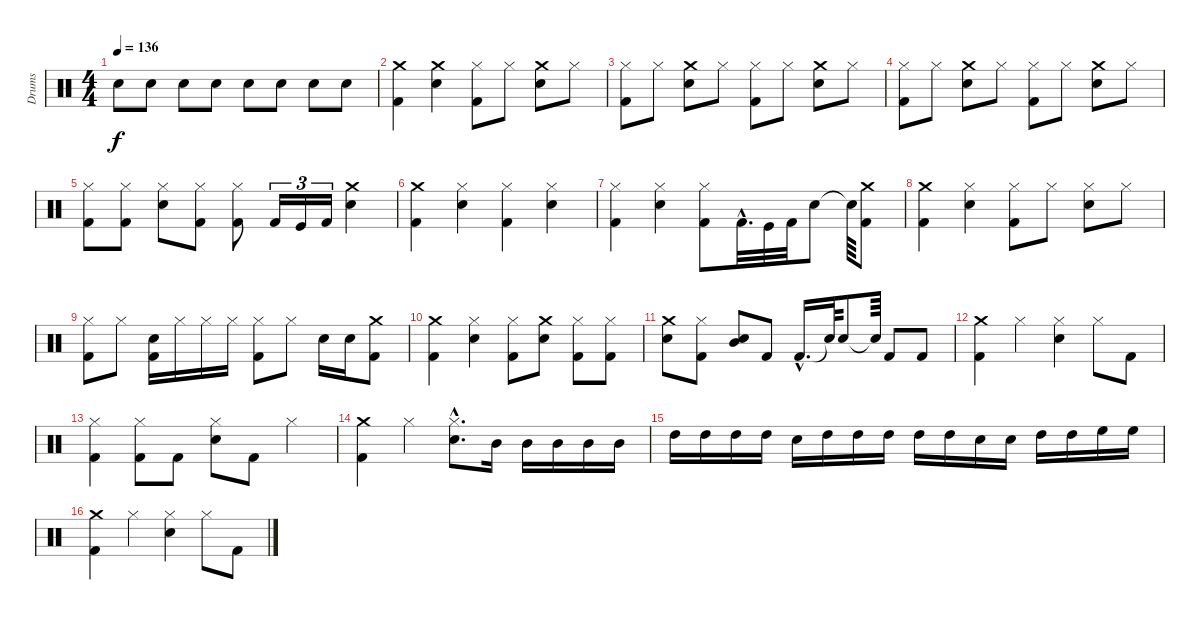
\track ("Drums" "Drums") {instrument percussion}
\staff {score}
\articulation defaults
\ts (4 4)
\tempo 136
\clef neutral
\ks c "Snare (hit) 2".8{dy f} "Snare (hit) 2".8 "Snare (hit) 2".8 "Snare (hit) 2".8 "Snare (hit) 2".8 "Snare (hit) 2".8 "Snare (hit) 2".8 "Snare (hit) 2".8
|
("Crash medium (hit)" "Kick (hit) 2").4 ("Crash medium (hit)" "Snare (hit) 2").4 ("Kick (hit) 2" "Hi-Hat (closed)").8 "Hi-Hat (closed)".8 ("Crash medium (hit)" "Snare (hit) 2").8 "Hi-Hat (closed)".8 |
("Hi-Hat (closed)" "Kick (hit) 2").8 "Hi-Hat (closed)".8 ("Crash medium (hit)" "Snare (hit) 2").8 "Hi-Hat (closed)".8 ("Hi-Hat (closed)" "Kick (hit) 2").8 "Hi-Hat (closed)".8 ("Crash medium (hit)" "Snare (hit) 2").8 "Hi-Hat (closed)".8 |
("Hi-Hat (closed)" "Kick (hit) 2").8 "Hi-Hat (closed)".8 ("Crash medium (hit)" "Snare (hit) 2").8 "Hi-Hat (closed)".8 ("Hi-Hat (closed)" "Kick (hit) 2").8 "Hi-Hat (closed)".8 ("Crash medium (hit)" "Snare (hit) 2").8 "Hi-Hat (closed)".8 |
("Hi-Hat (closed)" "Kick (hit) 2").8 ("Hi-Hat (closed)" "Kick (hit) 2").8 ("Snare (hit) 2" "Hi-Hat (closed)").8 ("Hi-Hat (closed)" "Kick (hit) 2").8 ("Hi-Hat (closed)" "Kick (hit) 2").8 "Kick (hit) 2".16{tu (3 2)} "Kick (hit)".16{tu (3 2)} "Kick (hit) 2".16{tu (3 2)} ("Crash medium (hit)" "Snare (hit) 2").4 |
("Crash medium (hit)" "Kick (hit) 2").4 ("Snare (hit) 2" "Hi-Hat (closed)").4 ("Hi-Hat (closed)" "Kick (hit) 2").4 ("Snare (hit) 2" "Hi-Hat (closed)").4 |
("Hi-Hat (closed)" "Kick (hit) 2").4 ("Hi-Hat (closed)" "Snare (hit) 2").4 ("Kick (hit) 2" "Hi-Hat (closed)").8 "Kick (hit) 2"{hac}.32{d} "Kick (hit)".32 "Kick (hit) 2".32 "Snare (hit) 2".8 "Snare (hit)"{t}.64 ("Crash medium (hit)" "Kick (hit) 2").8 |
("Kick (hit) 2" "Crash medium (hit)").4 ("Hi-Hat (closed)" "Snare (hit) 2").4 ("Hi-Hat (closed)" "Kick (hit) 2").8 "Hi-Hat (closed)".8 ("Snare (hit) 2" "Hi-Hat (closed)").8 "Hi-Hat (closed)".8 |
("Kick (hit) 2" "Hi-Hat (closed)").8 "Hi-Hat (closed)".8 ("Kick (hit) 2" "Snare (hit) 2").16 "Hi-Hat (closed)".16 "Hi-Hat (closed)".16 "Hi-Hat (closed)".16 ("Kick (hit) 2" "Hi-Hat (closed)").8 "Hi-Hat (closed)".8 "Snare (hit) 2".16 "Snare (hit) 2".16 ("Kick (hit) 2" "Crash medium (hit)").8 |
("Kick (hit) 2" "Crash medium (hit)").4 ("Snare (hit) 2" "Hi-Hat (closed)").4 ("Kick (hit) 2" "Hi-Hat (closed)").8 ("Crash medium (hit)" "Snare (hit) 2").8 ("Kick (hit) 2" "Hi-Hat (closed)").8 ("Kick (hit) 2" "Hi-Hat (closed)").8 |
("Snare (hit) 2" "Crash medium (hit)").8 ("Kick (hit) 2" "Hi-Hat (closed)").8 ("Mid Tom (hit)" "Snare (hit) 2").8 "Kick (hit) 2".8 "Kick (hit) 2"{hac}.16{d} "Snare (hit)"{t}.64 "Snare (hit) 2".8 "Snare (hit)"{t}.64 "Kick (hit) 2".8 "Kick (hit) 2".8 |
("Kick (hit) 2" "Crash medium (hit)").4 "Hi-Hat (closed)".4 ("Snare (hit) 2" "Hi-Hat (closed)").4 "Hi-Hat (closed)".8 "Kick (hit) 2".8 |
("Hi-Hat (closed)" "Kick (hit) 2").4 ("Hi-Hat (closed)" "Kick (hit) 2").8 "Kick (hit) 2".8 ("Snare (hit) 2" "Hi-Hat (closed)").8 "Kick (hit) 2".8 "Hi-Hat (closed)".4 |
("Crash medium (hit)" "Kick (hit) 2").4 "Hi-Hat (closed)".4 ("Snare (hit) 2"{hac} "Hi-Hat (closed)"{hac}).8{d} "Mid Tom (hit)".16 "Mid Tom (hit)".16 "Mid Tom (hit)".16 "Mid Tom (hit)".16 "Mid Tom (hit)".16 |
"High Tom (hit)".16 "High Tom (hit)".16 "High Tom (hit)".16 "High Tom (hit)".16 "Snare (hit) 2".16 "High Tom (hit)".16 "High Tom (hit)".16 "High Tom (hit)".16 "High Tom (hit)".16 "High Tom (hit)".16 "Snare (hit) 2".16 "Snare (hit) 2".16 "High Tom (hit)".16 "High Tom (hit)".16 "High Floor Tom (hit)".16 "High Floor Tom (hit)".16 |
("Kick (hit) 2" "Crash medium (hit)").4 "Hi-Hat (closed)".4 ("Snare (hit) 2" "Hi-Hat (closed)").4 "Hi-Hat (closed)".8 "Kick (hit) 2".8
